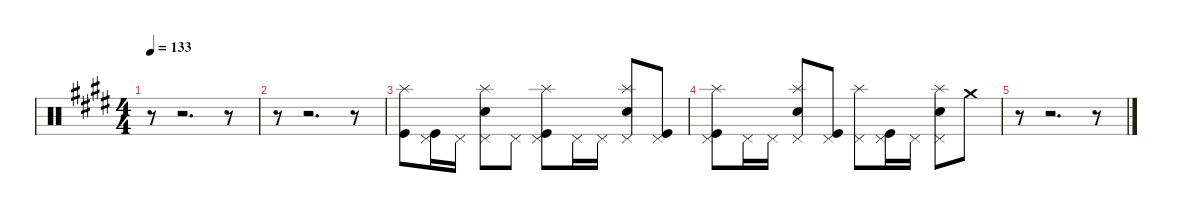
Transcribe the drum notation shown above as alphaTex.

\defaultSystemsLayout 4
\hideDynamics
\bracketExtendMode nobrackets
\singleTrackTrackNamePolicy hidden
\multiTrackTrackNamePolicy hidden
\firstSystemTrackNameMode fullname
\firstSystemTrackNameOrientation horizontal
\otherSystemsTrackNameOrientation horizontal
\track ("RVP" "drm.") {instrument percussion}
\staff {score}
\articulation defaults
\ts (4 4)
\tempo 133
\clef neutral
\ks e
r.8{dy f beam Down} r.2{d beam Down} r.8{beam Down} |
r.8{beam Down} r.2{d beam Down} r.8{beam Down} |
("Splash (hit)"{acc forcenatural} "Kick (hit)"{acc forcenatural}).8{beam Down} ("Pedal Hi-Hat (hit)"{acc forcenatural} "Kick (hit)"{acc forcenatural}).16{beam Down} "Pedal Hi-Hat (hit)"{acc forcenatural}.16{beam Down} ("Snare (hit) 2"{acc forcenatural} "Pedal Hi-Hat (hit)"{acc forcenatural} "Splash (hit)"{acc forcenatural}).8{dy fff beam Down} "Pedal Hi-Hat (hit)"{acc forcenatural}.8{dy f beam Down} ("Pedal Hi-Hat (hit)"{acc forcenatural} "Splash (hit)"{acc forcenatural} "Kick (hit)"{acc forcenatural}).8{beam Down} "Pedal Hi-Hat (hit)"{acc forcenatural}.16{beam Down} "Pedal Hi-Hat (hit)"{acc forcenatural}.16{beam Down} ("Snare (hit) 2"{acc forcenatural} "Pedal Hi-Hat (hit)"{acc forcenatural} "Splash (hit)"{acc forcenatural}).8{dy fff beam Up} ("Pedal Hi-Hat (hit)"{acc forcenatural} "Kick (hit)"{acc forcenatural}).8{dy f beam Up} |
("Pedal Hi-Hat (hit)"{acc forcenatural} "Splash (hit)"{acc forcenatural} "Kick (hit)"{acc forcenatural}).8{beam Down} "Pedal Hi-Hat (hit)"{acc forcenatural}.16{beam Down} "Pedal Hi-Hat (hit)"{acc forcenatural}.16{beam Down} ("Snare (hit) 2"{acc forcenatural} "Pedal Hi-Hat (hit)"{acc forcenatural} "Splash (hit)"{acc forcenatural}).8{dy fff beam Up} ("Pedal Hi-Hat (hit)"{acc forcenatural} "Kick (hit)"{acc forcenatural}).8{dy f beam Up} ("Pedal Hi-Hat (hit)"{acc forcenatural} "Splash (hit)"{acc forcenatural}).8{beam Down} ("Pedal Hi-Hat (hit)"{acc forcenatural} "Kick (hit)"{acc forcenatural}).16{beam Down} "Pedal Hi-Hat (hit)"{acc forcenatural}.16{beam Down} ("Snare (hit) 2"{acc forcenatural} "Pedal Hi-Hat (hit)"{acc forcenatural} "Splash (hit)"{acc forcenatural}).8{dy fff beam Down} "Crash medium (hit)"{acc forcenatural}.8{dy f beam Down} |
r.8{beam Down} r.2{d beam Down} r.8{beam Down}
